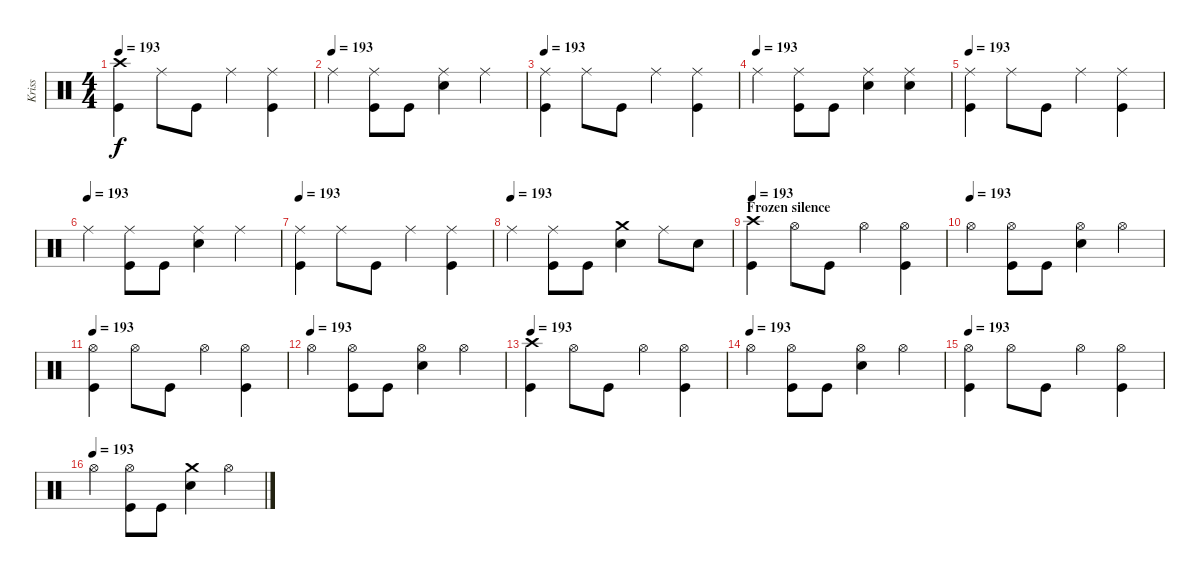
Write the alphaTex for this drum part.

\track ("Kriss" "Kriss") {instrument percussion}
\staff {score}
\articulation defaults
\ts (4 4)
\tempo 193
\clef neutral
\ks c
("Crash high (hit)" "Kick (hit)").4{dy f} "Ride (middle)".8 "Kick (hit)".8 "Ride (middle)".4 ("Ride (middle)" "Kick (hit)").4 |
\tempo (193)
"Ride (middle)".4 ("Ride (middle)" "Kick (hit)").8 "Kick (hit)".8 ("Ride (middle)" "Snare (hit) 2").4 "Ride (middle)".4 |
\tempo 193
("Ride (middle)" "Kick (hit)").4 "Ride (middle)".8 "Kick (hit)".8 "Ride (middle)".4 ("Ride (middle)" "Kick (hit)").4 |
\tempo (193)
"Ride (middle)".4 ("Ride (middle)" "Kick (hit)").8 "Kick (hit)".8 ("Ride (middle)" "Snare (hit) 2").4 ("Ride (middle)" "Snare (hit) 2").4 |
\tempo 193
("Ride (middle)" "Kick (hit)").4 "Ride (middle)".8 "Kick (hit)".8 "Ride (middle)".4 ("Ride (middle)" "Kick (hit)").4 |
\tempo (193)
"Ride (middle)".4 ("Ride (middle)" "Kick (hit)").8 "Kick (hit)".8 ("Ride (middle)" "Snare (hit) 2").4 "Ride (middle)".4 |
\tempo 193
("Ride (middle)" "Kick (hit)").4 "Ride (middle)".8 "Kick (hit)".8 "Ride (middle)".4 ("Ride (middle)" "Kick (hit)").4 |
\tempo (193)
"Ride (middle)".4 ("Ride (middle)" "Kick (hit)").8 "Kick (hit)".8 ("Crash medium (hit)" "Snare (hit) 2").4 "Ride (middle)".8 "Snare (hit) 2".8 |
\section ("" "Frozen silence")
\tempo 193
("Crash high (hit)" "Kick (hit)").4 "Hi-Hat (open)".8 "Kick (hit)".8 "Hi-Hat (open)".4 ("Hi-Hat (open)" "Kick (hit)").4 |
\tempo (193)
"Hi-Hat (open)".4 ("Hi-Hat (open)" "Kick (hit)").8 "Kick (hit)".8 ("Hi-Hat (open)" "Snare (hit) 2").4 "Hi-Hat (open)".4 |
\tempo 193
("Hi-Hat (open)" "Kick (hit)").4 "Hi-Hat (open)".8 "Kick (hit)".8 "Hi-Hat (open)".4 ("Hi-Hat (open)" "Kick (hit)").4 |
\tempo (193)
"Hi-Hat (open)".4 ("Hi-Hat (open)" "Kick (hit)").8 "Kick (hit)".8 ("Hi-Hat (open)" "Snare (hit) 2").4 "Hi-Hat (open)".4 |
\tempo 193
("Crash high (hit)" "Kick (hit)").4 "Hi-Hat (open)".8 "Kick (hit)".8 "Hi-Hat (open)".4 ("Hi-Hat (open)" "Kick (hit)").4 |
\tempo (193)
"Hi-Hat (open)".4 ("Hi-Hat (open)" "Kick (hit)").8 "Kick (hit)".8 ("Hi-Hat (open)" "Snare (hit) 2").4 "Hi-Hat (open)".4 |
\tempo 193
("Hi-Hat (open)" "Kick (hit)").4 "Hi-Hat (open)".8 "Kick (hit)".8 "Hi-Hat (open)".4 ("Hi-Hat (open)" "Kick (hit)").4 |
\tempo (193)
"Hi-Hat (open)".4 ("Hi-Hat (open)" "Kick (hit)").8 "Kick (hit)".8 ("Crash medium (hit)" "Snare (hit) 2").4 "Hi-Hat (open)".4
